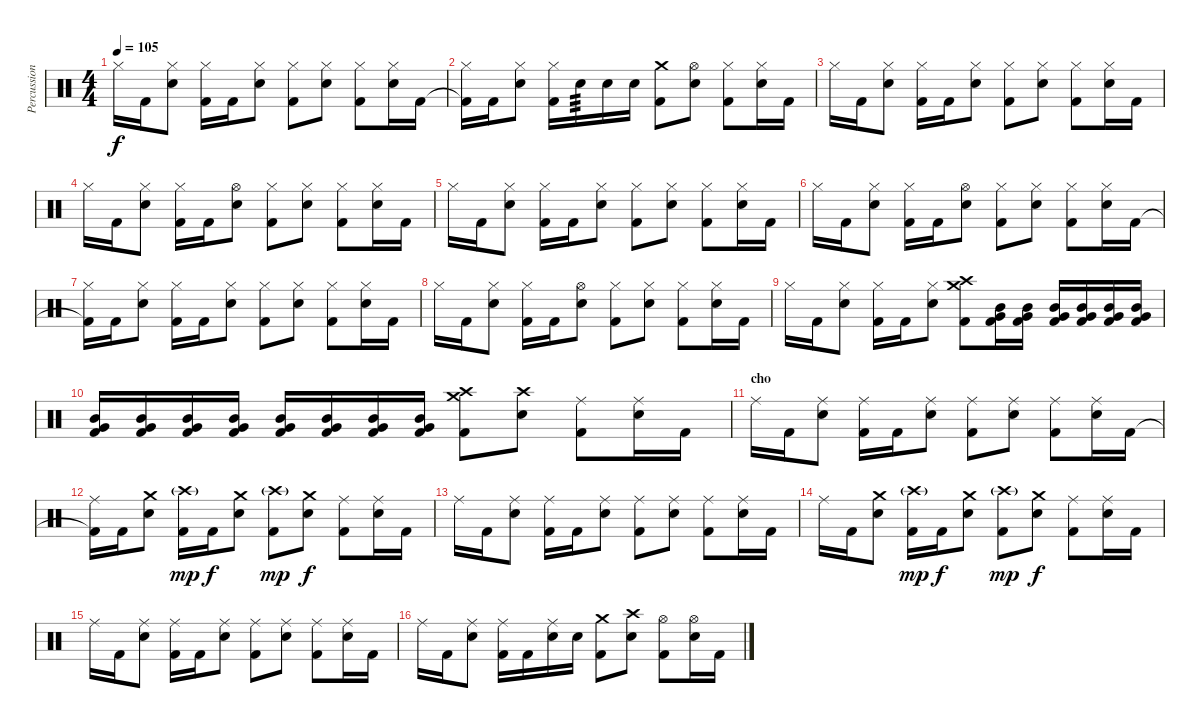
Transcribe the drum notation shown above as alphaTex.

\track ("Percussion" "Percussion") {instrument percussion}
\staff {score}
\articulation defaults
\ts (4 4)
\tempo 105
\clef neutral
\ks c "Hi-Hat (closed)".16{dy f} "Kick (hit) 2".16
("Electric Snare (hit)" "Hi-Hat (closed)").8 ("Kick (hit) 2" "Hi-Hat (closed)").16 "Kick (hit) 2".16 ("Electric Snare (hit)" "Hi-Hat (closed)").8 ("Kick (hit) 2" "Hi-Hat (closed)").8 ("Electric Snare (hit)" "Hi-Hat (closed)").8 ("Kick (hit) 2" "Hi-Hat (closed)").8 ("Electric Snare (hit)" "Hi-Hat (closed)").16 "Kick (hit) 2".16 |
("Kick (hit) 2"{t} "Hi-Hat (closed)").16 "Kick (hit) 2".16 ("Electric Snare (hit)" "Hi-Hat (closed)").8 ("Kick (hit) 2" "Hi-Hat (closed)").16 "Electric Snare (hit)".16{tp 3} "Electric Snare (hit)".16 "Electric Snare (hit)".16 ("Kick (hit) 2" "Crash medium (hit)").8 ("Electric Snare (hit)" "Hi-Hat (open)").8 ("Kick (hit) 2" "Hi-Hat (closed)").8 ("Electric Snare (hit)" "Hi-Hat (closed)").16 "Kick (hit) 2".16 |
"Hi-Hat (closed)".16 "Kick (hit) 2".16 ("Electric Snare (hit)" "Hi-Hat (closed)").8 ("Kick (hit) 2" "Hi-Hat (closed)").16 "Kick (hit) 2".16 ("Electric Snare (hit)" "Hi-Hat (closed)").8 ("Kick (hit) 2" "Hi-Hat (closed)").8 ("Electric Snare (hit)" "Hi-Hat (closed)").8 ("Kick (hit) 2" "Hi-Hat (closed)").8 ("Electric Snare (hit)" "Hi-Hat (closed)").16 "Kick (hit) 2".16 |
"Hi-Hat (closed)".16 "Kick (hit) 2".16 ("Electric Snare (hit)" "Hi-Hat (closed)").8 ("Kick (hit) 2" "Hi-Hat (closed)").16 "Kick (hit) 2".16 ("Electric Snare (hit)" "Hi-Hat (open)").8 ("Kick (hit) 2" "Hi-Hat (closed)").8 ("Electric Snare (hit)" "Hi-Hat (closed)").8 ("Kick (hit) 2" "Hi-Hat (closed)").8 ("Electric Snare (hit)" "Hi-Hat (closed)").16 "Kick (hit) 2".16 |
"Hi-Hat (closed)".16 "Kick (hit) 2".16 ("Electric Snare (hit)" "Hi-Hat (closed)").8 ("Kick (hit) 2" "Hi-Hat (closed)").16 "Kick (hit) 2".16 ("Electric Snare (hit)" "Hi-Hat (closed)").8 ("Kick (hit) 2" "Hi-Hat (closed)").8 ("Electric Snare (hit)" "Hi-Hat (closed)").8 ("Kick (hit) 2" "Hi-Hat (closed)").8 ("Electric Snare (hit)" "Hi-Hat (closed)").16 "Kick (hit) 2".16 |
"Hi-Hat (closed)".16 "Kick (hit) 2".16 ("Electric Snare (hit)" "Hi-Hat (closed)").8 ("Kick (hit) 2" "Hi-Hat (closed)").16 "Kick (hit) 2".16 ("Electric Snare (hit)" "Hi-Hat (open)").8 ("Kick (hit) 2" "Hi-Hat (closed)").8 ("Electric Snare (hit)" "Hi-Hat (closed)").8 ("Kick (hit) 2" "Hi-Hat (closed)").8 ("Electric Snare (hit)" "Hi-Hat (closed)").16 "Kick (hit) 2".16 |
("Kick (hit) 2"{t} "Hi-Hat (closed)").16 "Kick (hit) 2".16 ("Electric Snare (hit)" "Hi-Hat (closed)").8 ("Kick (hit) 2" "Hi-Hat (closed)").16 "Kick (hit) 2".16 ("Electric Snare (hit)" "Hi-Hat (closed)").8 ("Kick (hit) 2" "Hi-Hat (closed)").8 ("Electric Snare (hit)" "Hi-Hat (closed)").8 ("Kick (hit) 2" "Hi-Hat (closed)").8 ("Electric Snare (hit)" "Hi-Hat (closed)").16 "Kick (hit) 2".16 |
"Hi-Hat (closed)".16 "Kick (hit) 2".16 ("Electric Snare (hit)" "Hi-Hat (closed)").8 ("Kick (hit) 2" "Hi-Hat (closed)").16 "Kick (hit) 2".16 ("Electric Snare (hit)" "Hi-Hat (open)").8 ("Kick (hit) 2" "Hi-Hat (closed)").8 ("Electric Snare (hit)" "Hi-Hat (closed)").8 ("Kick (hit) 2" "Hi-Hat (closed)").8 ("Electric Snare (hit)" "Hi-Hat (closed)").16 "Kick (hit) 2".16 |
"Hi-Hat (closed)".16 "Kick (hit) 2".16 ("Electric Snare (hit)" "Hi-Hat (closed)").8 ("Kick (hit) 2" "Hi-Hat (closed)").16 "Kick (hit) 2".16 ("Electric Snare (hit)" "Hi-Hat (closed)").8 ("Kick (hit) 2" "Crash high (hit)" "Crash medium (hit)").8 ("Kick (hit) 2" "Very Low Tom (hit)" "Mid Tom (hit)").16 ("Kick (hit) 2" "Very Low Tom (hit)" "Mid Tom (hit)").16 ("Kick (hit) 2" "Very Low Tom (hit)" "Mid Tom (hit)").16 ("Kick (hit) 2" "Very Low Tom (hit)" "Mid Tom (hit)").16 ("Kick (hit) 2" "Very Low Tom (hit)" "Mid Tom (hit)").16 ("Kick (hit) 2" "Very Low Tom (hit)" "Mid Tom (hit)").16 |
("Kick (hit) 2" "Very Low Tom (hit)" "Mid Tom (hit)").16 ("Kick (hit) 2" "Very Low Tom (hit)" "Mid Tom (hit)").16 ("Kick (hit) 2" "Very Low Tom (hit)" "Mid Tom (hit)").16 ("Kick (hit) 2" "Very Low Tom (hit)" "Mid Tom (hit)").16 ("Kick (hit) 2" "Very Low Tom (hit)" "Mid Tom (hit)").16 ("Kick (hit) 2" "Very Low Tom (hit)" "Mid Tom (hit)").16 ("Kick (hit) 2" "Very Low Tom (hit)" "Mid Tom (hit)").16 ("Kick (hit) 2" "Very Low Tom (hit)" "Mid Tom (hit)").16 ("Kick (hit) 2" "Crash high (hit)" "Crash medium (hit)").8 ("Electric Snare (hit)" "Crash high (hit)").8 ("Kick (hit) 2" "Ride (middle)").8 ("Electric Snare (hit)" "Ride (middle)").16 "Kick (hit) 2".16 |
\section ("" "cho")
"Ride (middle)".16 "Kick (hit) 2".16 ("Electric Snare (hit)" "Ride (middle)").8 ("Kick (hit) 2" "Ride (middle)").16 "Kick (hit) 2".16 ("Electric Snare (hit)" "Ride (middle)").8 ("Kick (hit) 2" "Ride (middle)").8 ("Electric Snare (hit)" "Ride (middle)").8 ("Kick (hit) 2" "Ride (middle)").8 ("Electric Snare (hit)" "Ride (middle)").16 "Kick (hit) 2".16 |
("Kick (hit) 2"{t} "Ride (middle)").16 "Kick (hit) 2".16 ("Electric Snare (hit)" "Crash medium (hit)").8 ("Kick (hit) 2" "Crash high (hit)"{g}).16{dy mp} "Kick (hit) 2".16{dy f} ("Electric Snare (hit)" "Crash medium (hit)").8 ("Kick (hit) 2" "Crash high (hit)"{g}).8{dy mp} ("Electric Snare (hit)" "Crash medium (hit)").8{dy f} ("Kick (hit) 2" "Ride (middle)").8 ("Electric Snare (hit)" "Ride (middle)").16 "Kick (hit) 2".16 |
"Ride (middle)".16 "Kick (hit) 2".16 ("Electric Snare (hit)" "Ride (middle)").8 ("Kick (hit) 2" "Ride (middle)").16 "Kick (hit) 2".16 ("Electric Snare (hit)" "Ride (middle)").8 ("Kick (hit) 2" "Ride (middle)").8 ("Electric Snare (hit)" "Ride (middle)").8 ("Kick (hit) 2" "Ride (middle)").8 ("Electric Snare (hit)" "Ride (middle)").16 "Kick (hit) 2".16 |
"Ride (middle)".16 "Kick (hit) 2".16 ("Electric Snare (hit)" "Crash medium (hit)").8 ("Kick (hit) 2" "Crash high (hit)"{g}).16{dy mp} "Kick (hit) 2".16{dy f} ("Electric Snare (hit)" "Crash medium (hit)").8 ("Kick (hit) 2" "Crash high (hit)"{g}).8{dy mp} ("Electric Snare (hit)" "Crash medium (hit)").8{dy f} ("Kick (hit) 2" "Ride (middle)").8 ("Electric Snare (hit)" "Ride (middle)").16 "Kick (hit) 2".16 |
"Ride (middle)".16 "Kick (hit) 2".16 ("Electric Snare (hit)" "Ride (middle)").8 ("Kick (hit) 2" "Ride (middle)").16 "Kick (hit) 2".16 ("Electric Snare (hit)" "Ride (middle)").8 ("Kick (hit) 2" "Ride (middle)").8 ("Electric Snare (hit)" "Ride (middle)").8 ("Kick (hit) 2" "Ride (middle)").8 ("Electric Snare (hit)" "Ride (middle)").16 "Kick (hit) 2".16 |
"Ride (middle)".16 "Kick (hit) 2".16 ("Electric Snare (hit)" "Ride (middle)").8 ("Kick (hit) 2" "Ride (middle)").16 "Kick (hit) 2".16 ("Electric Snare (hit)" "Ride (middle)").16 "Electric Snare (hit)".16 ("Kick (hit) 2" "Crash medium (hit)").8 ("Electric Snare (hit)" "Crash high (hit)").8 ("Kick (hit) 2" "Hi-Hat (open)").8 ("Electric Snare (hit)" "Hi-Hat (open)").16 "Kick (hit) 2".16
